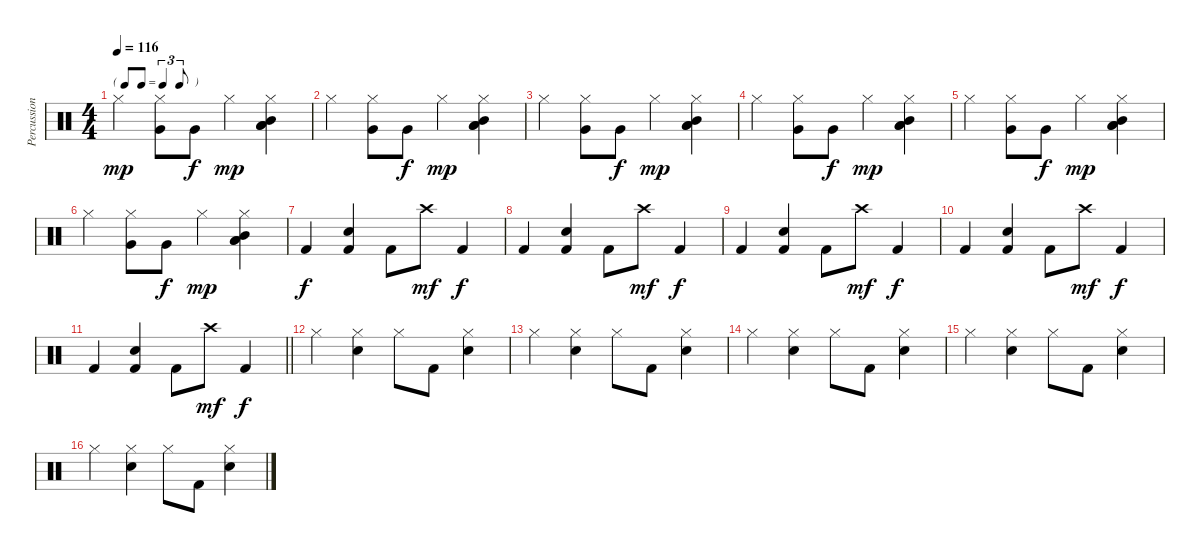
\track ("Percussion" "Percussion") {instrument percussion}
\staff {score}
\articulation defaults
\ts (4 4)
\tf triplet8th
\tempo 116
\clef neutral
\ks c "Hi-Hat (closed)".4{dy mp}
("Hi-Hat (closed)" "Very Low Tom (hit)").8 "Very Low Tom (hit)".8{dy f} "Hi-Hat (closed)".4{dy mp} ("Hi-Hat (closed)" "Mid Tom (hit)" "Low Floor Tom (hit)" "Low Tom (hit)").4 |
"Hi-Hat (closed)".4 ("Hi-Hat (closed)" "Very Low Tom (hit)").8 "Very Low Tom (hit)".8{dy f} "Hi-Hat (closed)".4{dy mp} ("Hi-Hat (closed)" "Mid Tom (hit)" "Low Floor Tom (hit)" "Low Tom (hit)").4 |
"Hi-Hat (closed)".4 ("Hi-Hat (closed)" "Very Low Tom (hit)").8 "Very Low Tom (hit)".8{dy f} "Hi-Hat (closed)".4{dy mp} ("Hi-Hat (closed)" "Mid Tom (hit)" "Low Floor Tom (hit)" "Low Tom (hit)").4 |
"Hi-Hat (closed)".4 ("Hi-Hat (closed)" "Very Low Tom (hit)").8 "Very Low Tom (hit)".8{dy f} "Hi-Hat (closed)".4{dy mp} ("Hi-Hat (closed)" "Mid Tom (hit)" "Low Floor Tom (hit)" "Low Tom (hit)").4 |
"Hi-Hat (closed)".4 ("Hi-Hat (closed)" "Very Low Tom (hit)").8 "Very Low Tom (hit)".8{dy f} "Hi-Hat (closed)".4{dy mp} ("Hi-Hat (closed)" "Mid Tom (hit)" "Low Floor Tom (hit)" "Low Tom (hit)").4 |
"Hi-Hat (closed)".4 ("Hi-Hat (closed)" "Very Low Tom (hit)").8 "Very Low Tom (hit)".8{dy f} "Hi-Hat (closed)".4{dy mp} ("Hi-Hat (closed)" "Mid Tom (hit)" "Low Floor Tom (hit)" "Low Tom (hit)").4 |
"Kick (hit) 2".4{dy f} ("Snare (hit) 2" "Kick (hit) 2").4 "Kick (hit) 2".8 "Crash high (hit)".8{dy mf} "Kick (hit) 2".4{dy f} |
"Kick (hit) 2".4 ("Snare (hit) 2" "Kick (hit) 2").4 "Kick (hit) 2".8 "Crash high (hit)".8{dy mf} "Kick (hit) 2".4{dy f} |
"Kick (hit) 2".4 ("Snare (hit) 2" "Kick (hit) 2").4 "Kick (hit) 2".8 "Crash high (hit)".8{dy mf} "Kick (hit) 2".4{dy f} |
"Kick (hit) 2".4 ("Snare (hit) 2" "Kick (hit) 2").4 "Kick (hit) 2".8 "Crash high (hit)".8{dy mf} "Kick (hit) 2".4{dy f} |
\barLineRight lightlight "Kick (hit) 2".4
("Snare (hit) 2" "Kick (hit) 2").4 "Kick (hit) 2".8 "Crash high (hit)".8{dy mf} "Kick (hit) 2".4{dy f} |
"Hi-Hat (closed)".4 ("Hi-Hat (closed)" "Snare (hit) 2").4 "Hi-Hat (closed)".8 "Kick (hit) 2".8 ("Hi-Hat (closed)" "Snare (hit) 2").4 |
"Hi-Hat (closed)".4 ("Hi-Hat (closed)" "Snare (hit) 2").4 "Hi-Hat (closed)".8 "Kick (hit) 2".8 ("Hi-Hat (closed)" "Snare (hit) 2").4 |
"Hi-Hat (closed)".4 ("Hi-Hat (closed)" "Snare (hit) 2").4 "Hi-Hat (closed)".8 "Kick (hit) 2".8 ("Hi-Hat (closed)" "Snare (hit) 2").4 |
"Hi-Hat (closed)".4 ("Hi-Hat (closed)" "Snare (hit) 2").4 "Hi-Hat (closed)".8 "Kick (hit) 2".8 ("Hi-Hat (closed)" "Snare (hit) 2").4 |
"Hi-Hat (closed)".4 ("Hi-Hat (closed)" "Snare (hit) 2").4 "Hi-Hat (closed)".8 "Kick (hit) 2".8 ("Hi-Hat (closed)" "Snare (hit) 2").4
